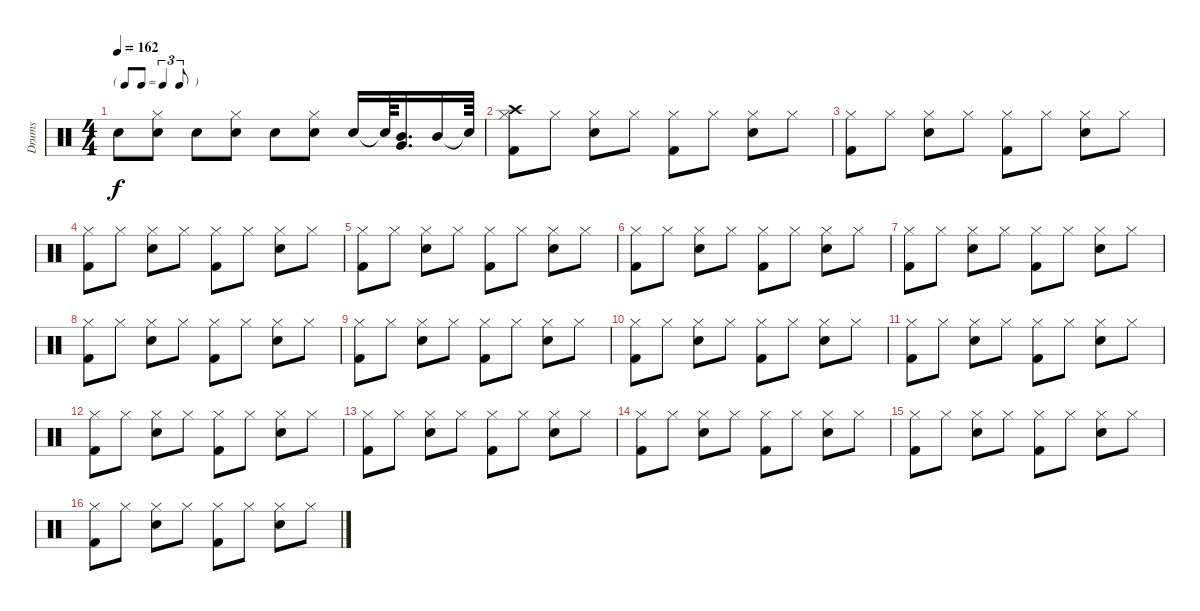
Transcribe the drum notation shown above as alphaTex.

\track ("Drums" "Drums") {instrument percussion}
\staff {score}
\articulation defaults
\ts (4 4)
\tf triplet8th
\tempo 162
\clef neutral
\ks c "Snare (hit) 2".8{dy f}
("Hi-Hat (closed)" "Snare (hit) 2").8 "Snare (hit) 2".8 ("Hi-Hat (closed)" "Snare (hit) 2").8 "Snare (hit) 2".8 ("Hi-Hat (closed)" "Snare (hit) 2").8 "Snare (hit) 2".16 "Snare (hit)"{t}.64 ("Mid Tom (hit)" "Very Low Tom (hit)").16{d} "Mid Tom (hit)".16 "Snare (hit)"{t}.64 |
("Hi-Hat (closed)" "Crash high (hit)" "Kick (hit) 2").8 "Hi-Hat (closed)".8 ("Hi-Hat (closed)" "Snare (hit) 2").8 "Hi-Hat (closed)".8 ("Hi-Hat (closed)" "Kick (hit) 2").8 "Hi-Hat (closed)".8 ("Hi-Hat (closed)" "Snare (hit) 2").8 "Hi-Hat (closed)".8 |
("Hi-Hat (closed)" "Kick (hit) 2").8 "Hi-Hat (closed)".8 ("Hi-Hat (closed)" "Snare (hit) 2").8 "Hi-Hat (closed)".8 ("Hi-Hat (closed)" "Kick (hit) 2").8 "Hi-Hat (closed)".8 ("Hi-Hat (closed)" "Snare (hit) 2").8 "Hi-Hat (closed)".8 |
("Hi-Hat (closed)" "Kick (hit) 2").8 "Hi-Hat (closed)".8 ("Hi-Hat (closed)" "Snare (hit) 2").8 "Hi-Hat (closed)".8 ("Hi-Hat (closed)" "Kick (hit) 2").8 "Hi-Hat (closed)".8 ("Hi-Hat (closed)" "Snare (hit) 2").8 "Hi-Hat (closed)".8 |
("Hi-Hat (closed)" "Kick (hit) 2").8 "Hi-Hat (closed)".8 ("Hi-Hat (closed)" "Snare (hit) 2").8 "Hi-Hat (closed)".8 ("Hi-Hat (closed)" "Kick (hit) 2").8 "Hi-Hat (closed)".8 ("Hi-Hat (closed)" "Snare (hit) 2").8 "Hi-Hat (closed)".8 |
("Hi-Hat (closed)" "Kick (hit) 2").8 "Hi-Hat (closed)".8 ("Hi-Hat (closed)" "Snare (hit) 2").8 "Hi-Hat (closed)".8 ("Hi-Hat (closed)" "Kick (hit) 2").8 "Hi-Hat (closed)".8 ("Hi-Hat (closed)" "Snare (hit) 2").8 "Hi-Hat (closed)".8 |
("Hi-Hat (closed)" "Kick (hit) 2").8 "Hi-Hat (closed)".8 ("Hi-Hat (closed)" "Snare (hit) 2").8 "Hi-Hat (closed)".8 ("Hi-Hat (closed)" "Kick (hit) 2").8 "Hi-Hat (closed)".8 ("Hi-Hat (closed)" "Snare (hit) 2").8 "Hi-Hat (closed)".8 |
("Hi-Hat (closed)" "Kick (hit) 2").8 "Hi-Hat (closed)".8 ("Hi-Hat (closed)" "Snare (hit) 2").8 "Hi-Hat (closed)".8 ("Hi-Hat (closed)" "Kick (hit) 2").8 "Hi-Hat (closed)".8 ("Hi-Hat (closed)" "Snare (hit) 2").8 "Hi-Hat (closed)".8 |
("Hi-Hat (closed)" "Kick (hit) 2").8 "Hi-Hat (closed)".8 ("Hi-Hat (closed)" "Snare (hit) 2").8 "Hi-Hat (closed)".8 ("Hi-Hat (closed)" "Kick (hit) 2").8 "Hi-Hat (closed)".8 ("Hi-Hat (closed)" "Snare (hit) 2").8 "Hi-Hat (closed)".8 |
("Hi-Hat (closed)" "Kick (hit) 2").8 "Hi-Hat (closed)".8 ("Hi-Hat (closed)" "Snare (hit) 2").8 "Hi-Hat (closed)".8 ("Hi-Hat (closed)" "Kick (hit) 2").8 "Hi-Hat (closed)".8 ("Hi-Hat (closed)" "Snare (hit) 2").8 "Hi-Hat (closed)".8 |
("Hi-Hat (closed)" "Kick (hit) 2").8 "Hi-Hat (closed)".8 ("Hi-Hat (closed)" "Snare (hit) 2").8 "Hi-Hat (closed)".8 ("Hi-Hat (closed)" "Kick (hit) 2").8 "Hi-Hat (closed)".8 ("Hi-Hat (closed)" "Snare (hit) 2").8 "Hi-Hat (closed)".8 |
("Hi-Hat (closed)" "Kick (hit) 2").8 "Hi-Hat (closed)".8 ("Hi-Hat (closed)" "Snare (hit) 2").8 "Hi-Hat (closed)".8 ("Hi-Hat (closed)" "Kick (hit) 2").8 "Hi-Hat (closed)".8 ("Hi-Hat (closed)" "Snare (hit) 2").8 "Hi-Hat (closed)".8 |
("Hi-Hat (closed)" "Kick (hit) 2").8 "Hi-Hat (closed)".8 ("Hi-Hat (closed)" "Snare (hit) 2").8 "Hi-Hat (closed)".8 ("Hi-Hat (closed)" "Kick (hit) 2").8 "Hi-Hat (closed)".8 ("Hi-Hat (closed)" "Snare (hit) 2").8 "Hi-Hat (closed)".8 |
("Hi-Hat (closed)" "Kick (hit) 2").8 "Hi-Hat (closed)".8 ("Hi-Hat (closed)" "Snare (hit) 2").8 "Hi-Hat (closed)".8 ("Hi-Hat (closed)" "Kick (hit) 2").8 "Hi-Hat (closed)".8 ("Hi-Hat (closed)" "Snare (hit) 2").8 "Hi-Hat (closed)".8 |
("Hi-Hat (closed)" "Kick (hit) 2").8 "Hi-Hat (closed)".8 ("Hi-Hat (closed)" "Snare (hit) 2").8 "Hi-Hat (closed)".8 ("Hi-Hat (closed)" "Kick (hit) 2").8 "Hi-Hat (closed)".8 ("Hi-Hat (closed)" "Snare (hit) 2").8 "Hi-Hat (closed)".8 |
("Hi-Hat (closed)" "Kick (hit) 2").8 "Hi-Hat (closed)".8 ("Hi-Hat (closed)" "Snare (hit) 2").8 "Hi-Hat (closed)".8 ("Hi-Hat (closed)" "Kick (hit) 2").8 "Hi-Hat (closed)".8 ("Hi-Hat (closed)" "Snare (hit) 2").8 "Hi-Hat (closed)".8
